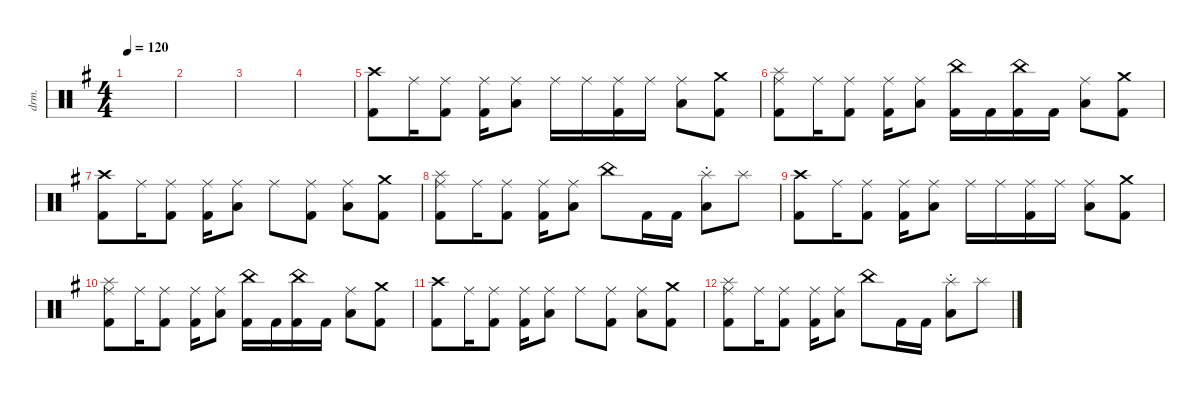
\defaultSystemsLayout 4
\hideDynamics
\bracketExtendMode nobrackets
\track ("Drums" "drm.") {instrument percussion}
\staff {score}
\articulation defaults
\ts (4 4)
\tempo 120
\clef neutral
\ks g
|
|
|
|
("Kick (hit) 2"{acc forcenatural} "Crash high (hit)"{acc forcenatural}).8{beam Down} "Ride (middle)"{acc forcenatural}.16{beam Down} ("Kick (hit) 2"{acc forcenatural} "Ride (middle)"{acc forcenatural}).8{beam Down} ("Kick (hit) 2"{acc forcenatural} "Ride (middle)"{acc forcenatural}).16{beam Down} ("Low Floor Tom (hit)"{acc forcenatural} "Ride (middle)"{acc forcenatural}).8{beam Down} "Ride (middle)"{acc forcenatural}.16{beam Down} "Ride (middle)"{acc forcenatural}.16{beam Down} ("Kick (hit) 2"{acc forcenatural} "Ride (middle)"{acc forcenatural}).16{beam Down} "Ride (middle)"{acc forcenatural}.16{beam Down} ("Low Floor Tom (hit)"{acc forcenatural} "Ride (middle)"{acc forcenatural}).8{beam Down} ("Kick (hit) 2"{acc forcenatural} "Crash medium (hit)"{acc forcenatural}).8{beam Down} |
("Kick (hit) 2"{acc forcenatural} "Ride (middle)"{acc forcenatural} "Splash (hit)"{acc forcenatural}).8{beam Down} "Ride (middle)"{acc forcenatural}.16{beam Down} ("Kick (hit) 2"{acc forcenatural} "Ride (middle)"{acc forcenatural}).8{beam Down} ("Kick (hit) 2"{acc forcenatural} "Ride (middle)"{acc forcenatural}).16{beam Down} ("Low Floor Tom (hit)"{acc forcenatural} "Ride (middle)"{acc forcenatural}).8{beam Down} ("Kick (hit) 2"{acc forcenatural} "China (choke)"{acc forcenatural}).16{beam Down} "Kick (hit) 2"{acc forcenatural}.16{beam Down} ("Kick (hit) 2"{acc forcenatural} "China (choke)"{acc forcenatural}).16{beam Down} "Kick (hit) 2"{acc forcenatural}.16{beam Down} ("Low Floor Tom (hit)"{acc forcenatural} "Ride (middle)"{acc forcenatural}).8{beam Down} ("Kick (hit) 2"{acc forcenatural} "Crash medium (hit)"{acc forcenatural}).8{beam Down} |
("Kick (hit) 2"{acc forcenatural} "Crash high (hit)"{acc forcenatural}).8{beam Down} "Ride (middle)"{acc forcenatural}.16{beam Down} ("Kick (hit) 2"{acc forcenatural} "Ride (middle)"{acc forcenatural}).8{beam Down} ("Kick (hit) 2"{acc forcenatural} "Ride (middle)"{acc forcenatural}).16{beam Down} ("Low Floor Tom (hit)"{acc forcenatural} "Ride (middle)"{acc forcenatural}).8{beam Down} "Ride (middle)"{acc forcenatural}.8{beam Down} ("Kick (hit) 2"{acc forcenatural} "Ride (middle)"{acc forcenatural}).8{beam Down} ("Low Floor Tom (hit)"{acc forcenatural} "Ride (middle)"{acc forcenatural}).8{beam Down} ("Kick (hit) 2"{acc forcenatural} "Crash medium (hit)"{acc forcenatural}).8{beam Down} |
("Kick (hit) 2"{acc forcenatural} "Splash (hit)"{acc forcenatural} "Ride (middle)"{acc forcenatural}).8{beam Down} "Ride (middle)"{acc forcenatural}.16{beam Down} ("Kick (hit) 2"{acc forcenatural} "Ride (middle)"{acc forcenatural}).8{beam Down} ("Kick (hit) 2"{acc forcenatural} "Ride (middle)"{acc forcenatural}).16{beam Down} ("Low Floor Tom (hit)"{acc forcenatural} "Ride (middle)"{acc forcenatural}).8{beam Down} "China (choke)"{acc forcenatural}.8{beam Down} "Kick (hit) 2"{acc forcenatural}.16{beam Down} "Kick (hit) 2"{acc forcenatural}.16{beam Down} ("Low Floor Tom (hit)"{acc forcenatural} "Splash (choke)"{acc forcenatural}).8{beam Down} "Splash (hit)"{acc forcenatural}.8{beam Down} |
("Kick (hit) 2"{acc forcenatural} "Crash high (hit)"{acc forcenatural}).8{beam Down} "Ride (middle)"{acc forcenatural}.16{beam Down} ("Kick (hit) 2"{acc forcenatural} "Ride (middle)"{acc forcenatural}).8{beam Down} ("Kick (hit) 2"{acc forcenatural} "Ride (middle)"{acc forcenatural}).16{beam Down} ("Low Floor Tom (hit)"{acc forcenatural} "Ride (middle)"{acc forcenatural}).8{beam Down} "Ride (middle)"{acc forcenatural}.16{beam Down} "Ride (middle)"{acc forcenatural}.16{beam Down} ("Kick (hit) 2"{acc forcenatural} "Ride (middle)"{acc forcenatural}).16{beam Down} "Ride (middle)"{acc forcenatural}.16{beam Down} ("Low Floor Tom (hit)"{acc forcenatural} "Ride (middle)"{acc forcenatural}).8{beam Down} ("Kick (hit) 2"{acc forcenatural} "Crash medium (hit)"{acc forcenatural}).8{beam Down} |
("Kick (hit) 2"{acc forcenatural} "Ride (middle)"{acc forcenatural} "Splash (hit)"{acc forcenatural}).8{beam Down} "Ride (middle)"{acc forcenatural}.16{beam Down} ("Kick (hit) 2"{acc forcenatural} "Ride (middle)"{acc forcenatural}).8{beam Down} ("Kick (hit) 2"{acc forcenatural} "Ride (middle)"{acc forcenatural}).16{beam Down} ("Low Floor Tom (hit)"{acc forcenatural} "Ride (middle)"{acc forcenatural}).8{beam Down} ("Kick (hit) 2"{acc forcenatural} "China (choke)"{acc forcenatural}).16{beam Down} "Kick (hit) 2"{acc forcenatural}.16{beam Down} ("Kick (hit) 2"{acc forcenatural} "China (choke)"{acc forcenatural}).16{beam Down} "Kick (hit) 2"{acc forcenatural}.16{beam Down} ("Low Floor Tom (hit)"{acc forcenatural} "Ride (middle)"{acc forcenatural}).8{beam Down} ("Kick (hit) 2"{acc forcenatural} "Crash medium (hit)"{acc forcenatural}).8{beam Down} |
("Kick (hit) 2"{acc forcenatural} "Crash high (hit)"{acc forcenatural}).8{beam Down} "Ride (middle)"{acc forcenatural}.16{beam Down} ("Kick (hit) 2"{acc forcenatural} "Ride (middle)"{acc forcenatural}).8{beam Down} ("Kick (hit) 2"{acc forcenatural} "Ride (middle)"{acc forcenatural}).16{beam Down} ("Low Floor Tom (hit)"{acc forcenatural} "Ride (middle)"{acc forcenatural}).8{beam Down} "Ride (middle)"{acc forcenatural}.8{beam Down} ("Kick (hit) 2"{acc forcenatural} "Ride (middle)"{acc forcenatural}).8{beam Down} ("Low Floor Tom (hit)"{acc forcenatural} "Ride (middle)"{acc forcenatural}).8{beam Down} ("Kick (hit) 2"{acc forcenatural} "Crash medium (hit)"{acc forcenatural}).8{beam Down} |
("Kick (hit) 2"{acc forcenatural} "Splash (hit)"{acc forcenatural} "Ride (middle)"{acc forcenatural}).8{beam Down} "Ride (middle)"{acc forcenatural}.16{beam Down} ("Kick (hit) 2"{acc forcenatural} "Ride (middle)"{acc forcenatural}).8{beam Down} ("Kick (hit) 2"{acc forcenatural} "Ride (middle)"{acc forcenatural}).16{beam Down} ("Low Floor Tom (hit)"{acc forcenatural} "Ride (middle)"{acc forcenatural}).8{beam Down} "China (choke)"{acc forcenatural}.8{beam Down} "Kick (hit) 2"{acc forcenatural}.16{beam Down} "Kick (hit) 2"{acc forcenatural}.16{beam Down} ("Low Floor Tom (hit)"{acc forcenatural} "Splash (choke)"{acc forcenatural}).8{beam Down} "Splash (hit)"{acc forcenatural}.8{beam Down}
